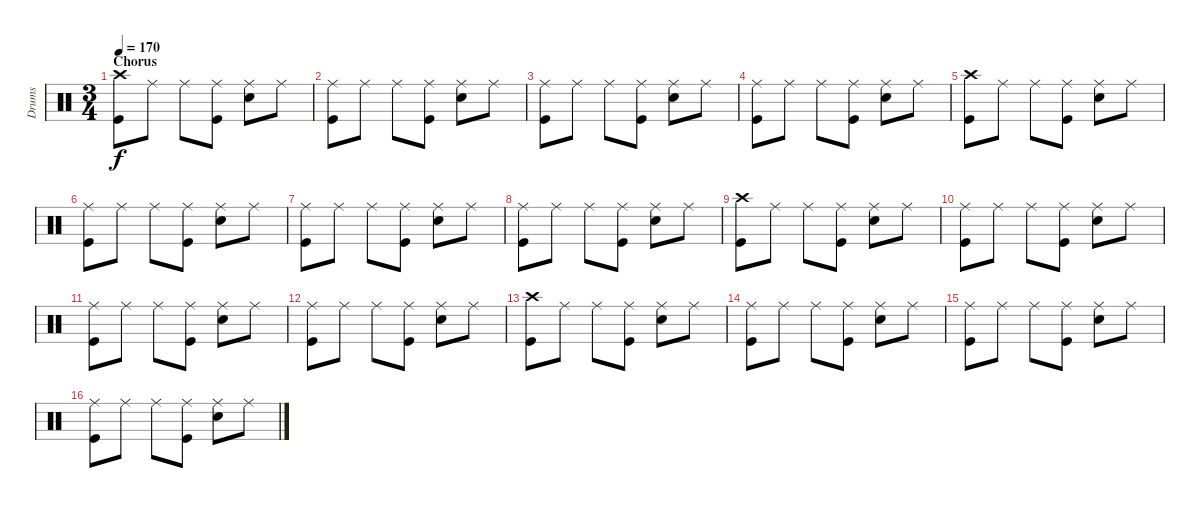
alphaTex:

\track ("Drums" "Drums") {instrument percussion}
\staff {score}
\articulation defaults
\ts (3 4)
\section ("" "Chorus")
\tempo 170
\clef neutral
\ks c
("Crash high (hit)" "Kick (hit)").8{dy f} "Ride (middle)".8 "Ride (middle)".8 ("Ride (middle)" "Kick (hit)").8 ("Ride (middle)" "Snare (hit) 2").8 "Ride (middle)".8 |
("Ride (middle)" "Kick (hit)").8 "Ride (middle)".8 "Ride (middle)".8 ("Ride (middle)" "Kick (hit)").8 ("Ride (middle)" "Snare (hit) 2").8 "Ride (middle)".8 |
("Ride (middle)" "Kick (hit)").8 "Ride (middle)".8 "Ride (middle)".8 ("Ride (middle)" "Kick (hit)").8 ("Ride (middle)" "Snare (hit) 2").8 "Ride (middle)".8 |
("Ride (middle)" "Kick (hit)").8 "Ride (middle)".8 "Ride (middle)".8 ("Ride (middle)" "Kick (hit)").8 ("Ride (middle)" "Snare (hit) 2").8 "Ride (middle)".8 |
("Crash high (hit)" "Kick (hit)").8 "Ride (middle)".8 "Ride (middle)".8 ("Ride (middle)" "Kick (hit)").8 ("Ride (middle)" "Snare (hit) 2").8 "Ride (middle)".8 |
("Ride (middle)" "Kick (hit)").8 "Ride (middle)".8 "Ride (middle)".8 ("Ride (middle)" "Kick (hit)").8 ("Ride (middle)" "Snare (hit) 2").8 "Ride (middle)".8 |
("Ride (middle)" "Kick (hit)").8 "Ride (middle)".8 "Ride (middle)".8 ("Ride (middle)" "Kick (hit)").8 ("Ride (middle)" "Snare (hit) 2").8 "Ride (middle)".8 |
("Ride (middle)" "Kick (hit)").8 "Ride (middle)".8 "Ride (middle)".8 ("Ride (middle)" "Kick (hit)").8 ("Ride (middle)" "Snare (hit) 2").8 "Ride (middle)".8 |
("Crash high (hit)" "Kick (hit)").8 "Ride (middle)".8 "Ride (middle)".8 ("Ride (middle)" "Kick (hit)").8 ("Ride (middle)" "Snare (hit) 2").8 "Ride (middle)".8 |
("Ride (middle)" "Kick (hit)").8 "Ride (middle)".8 "Ride (middle)".8 ("Ride (middle)" "Kick (hit)").8 ("Ride (middle)" "Snare (hit) 2").8 "Ride (middle)".8 |
("Ride (middle)" "Kick (hit)").8 "Ride (middle)".8 "Ride (middle)".8 ("Ride (middle)" "Kick (hit)").8 ("Ride (middle)" "Snare (hit) 2").8 "Ride (middle)".8 |
("Ride (middle)" "Kick (hit)").8 "Ride (middle)".8 "Ride (middle)".8 ("Ride (middle)" "Kick (hit)").8 ("Ride (middle)" "Snare (hit) 2").8 "Ride (middle)".8 |
("Crash high (hit)" "Kick (hit)").8 "Ride (middle)".8 "Ride (middle)".8 ("Ride (middle)" "Kick (hit)").8 ("Ride (middle)" "Snare (hit) 2").8 "Ride (middle)".8 |
("Ride (middle)" "Kick (hit)").8 "Ride (middle)".8 "Ride (middle)".8 ("Ride (middle)" "Kick (hit)").8 ("Ride (middle)" "Snare (hit) 2").8 "Ride (middle)".8 |
("Ride (middle)" "Kick (hit)").8 "Ride (middle)".8 "Ride (middle)".8 ("Ride (middle)" "Kick (hit)").8 ("Ride (middle)" "Snare (hit) 2").8 "Ride (middle)".8 |
("Ride (middle)" "Kick (hit)").8 "Ride (middle)".8 "Ride (middle)".8 ("Ride (middle)" "Kick (hit)").8 ("Ride (middle)" "Snare (hit) 2").8 "Ride (middle)".8
